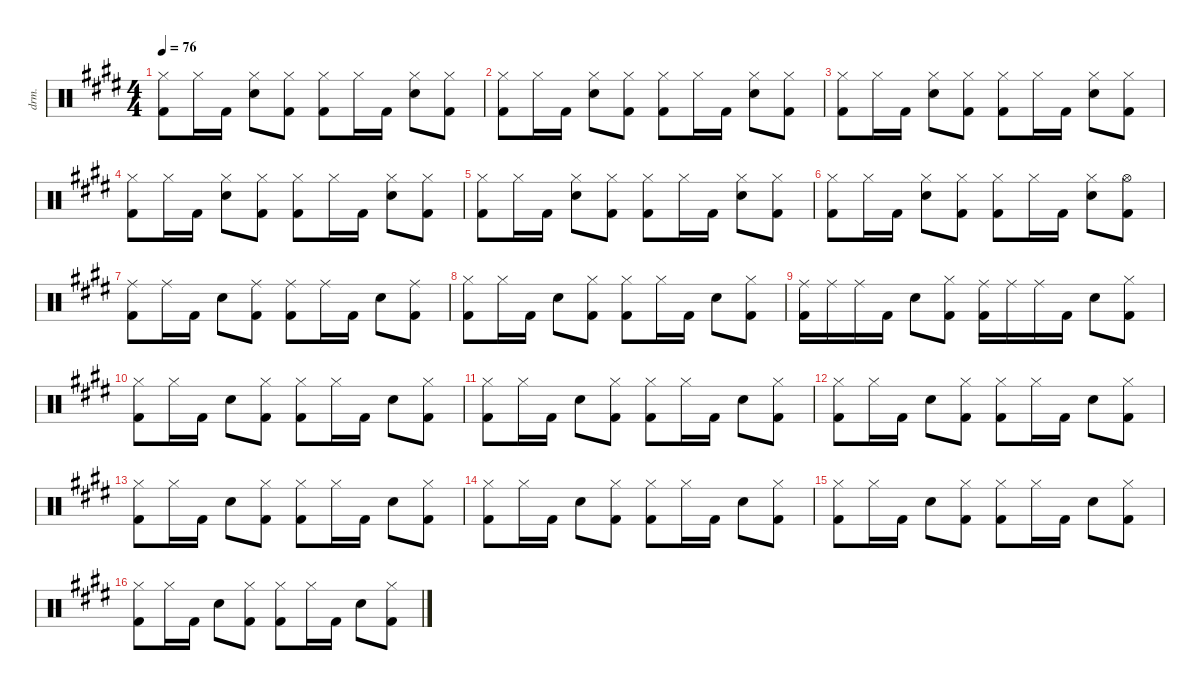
\defaultSystemsLayout 4
\hideDynamics
\bracketExtendMode nobrackets
\otherSystemsTrackNameOrientation horizontal
\track ("Drums" "drm.") {instrument percussion}
\staff {score}
\articulation defaults
\ts (4 4)
\tempo 76
\clef neutral
\ks e
("Hi-Hat (closed)"{acc forcenatural} "Kick (hit) 2"{acc forcenatural}).8{dy f beam Down} "Hi-Hat (closed)"{acc forcenatural}.16{beam Down} "Kick (hit) 2"{acc forcenatural}.16{beam Down} ("Hi-Hat (closed)"{acc forcenatural} "Snare (hit) 2"{acc forcenatural}).8{dy mf beam Down} ("Hi-Hat (closed)"{acc forcenatural} "Kick (hit) 2"{acc forcenatural}).8{dy f beam Down} ("Hi-Hat (closed)"{acc forcenatural} "Kick (hit) 2"{acc forcenatural}).8{beam Down} "Hi-Hat (closed)"{acc forcenatural}.16{beam Down} "Kick (hit) 2"{acc forcenatural}.16{beam Down} ("Hi-Hat (closed)"{acc forcenatural} "Snare (hit) 2"{acc forcenatural}).8{dy mf beam Down} ("Hi-Hat (closed)"{acc forcenatural} "Kick (hit) 2"{acc forcenatural}).8{dy f beam Down} |
("Hi-Hat (closed)"{acc forcenatural} "Kick (hit) 2"{acc forcenatural}).8{beam Down} "Hi-Hat (closed)"{acc forcenatural}.16{beam Down} "Kick (hit) 2"{acc forcenatural}.16{beam Down} ("Hi-Hat (closed)"{acc forcenatural} "Snare (hit) 2"{acc forcenatural}).8{dy mf beam Down} ("Hi-Hat (closed)"{acc forcenatural} "Kick (hit) 2"{acc forcenatural}).8{dy f beam Down} ("Hi-Hat (closed)"{acc forcenatural} "Kick (hit) 2"{acc forcenatural}).8{beam Down} "Hi-Hat (closed)"{acc forcenatural}.16{beam Down} "Kick (hit) 2"{acc forcenatural}.16{beam Down} ("Hi-Hat (closed)"{acc forcenatural} "Snare (hit) 2"{acc forcenatural}).8{dy mf beam Down} ("Hi-Hat (closed)"{acc forcenatural} "Kick (hit) 2"{acc forcenatural}).8{dy f beam Down} |
("Hi-Hat (closed)"{acc forcenatural} "Kick (hit) 2"{acc forcenatural}).8{beam Down} "Hi-Hat (closed)"{acc forcenatural}.16{beam Down} "Kick (hit) 2"{acc forcenatural}.16{beam Down} ("Hi-Hat (closed)"{acc forcenatural} "Snare (hit) 2"{acc forcenatural}).8{dy mf beam Down} ("Hi-Hat (closed)"{acc forcenatural} "Kick (hit) 2"{acc forcenatural}).8{dy f beam Down} ("Hi-Hat (closed)"{acc forcenatural} "Kick (hit) 2"{acc forcenatural}).8{beam Down} "Hi-Hat (closed)"{acc forcenatural}.16{beam Down} "Kick (hit) 2"{acc forcenatural}.16{beam Down} ("Hi-Hat (closed)"{acc forcenatural} "Snare (hit) 2"{acc forcenatural}).8{dy mf beam Down} ("Hi-Hat (closed)"{acc forcenatural} "Kick (hit) 2"{acc forcenatural}).8{dy f beam Down} |
("Hi-Hat (closed)"{acc forcenatural} "Kick (hit) 2"{acc forcenatural}).8{beam Down} "Hi-Hat (closed)"{acc forcenatural}.16{beam Down} "Kick (hit) 2"{acc forcenatural}.16{beam Down} ("Hi-Hat (closed)"{acc forcenatural} "Snare (hit) 2"{acc forcenatural}).8{dy mf beam Down} ("Hi-Hat (closed)"{acc forcenatural} "Kick (hit) 2"{acc forcenatural}).8{dy f beam Down} ("Hi-Hat (closed)"{acc forcenatural} "Kick (hit) 2"{acc forcenatural}).8{beam Down} "Hi-Hat (closed)"{acc forcenatural}.16{beam Down} "Kick (hit) 2"{acc forcenatural}.16{beam Down} ("Hi-Hat (closed)"{acc forcenatural} "Snare (hit) 2"{acc forcenatural}).8{dy mf beam Down} ("Hi-Hat (closed)"{acc forcenatural} "Kick (hit) 2"{acc forcenatural}).8{dy f beam Down} |
("Hi-Hat (closed)"{acc forcenatural} "Kick (hit) 2"{acc forcenatural}).8{beam Down} "Hi-Hat (closed)"{acc forcenatural}.16{beam Down} "Kick (hit) 2"{acc forcenatural}.16{beam Down} ("Hi-Hat (closed)"{acc forcenatural} "Snare (hit) 2"{acc forcenatural}).8{dy mf beam Down} ("Hi-Hat (closed)"{acc forcenatural} "Kick (hit) 2"{acc forcenatural}).8{dy f beam Down} ("Hi-Hat (closed)"{acc forcenatural} "Kick (hit) 2"{acc forcenatural}).8{beam Down} "Hi-Hat (closed)"{acc forcenatural}.16{beam Down} "Kick (hit) 2"{acc forcenatural}.16{beam Down} ("Hi-Hat (closed)"{acc forcenatural} "Snare (hit) 2"{acc forcenatural}).8{dy mf beam Down} ("Hi-Hat (closed)"{acc forcenatural} "Kick (hit) 2"{acc forcenatural}).8{dy f beam Down} |
("Hi-Hat (closed)"{acc forcenatural} "Kick (hit) 2"{acc forcenatural}).8{beam Down} "Hi-Hat (closed)"{acc forcenatural}.16{beam Down} "Kick (hit) 2"{acc forcenatural}.16{beam Down} ("Hi-Hat (closed)"{acc forcenatural} "Snare (hit) 2"{acc forcenatural}).8{dy mf beam Down} ("Hi-Hat (closed)"{acc forcenatural} "Kick (hit) 2"{acc forcenatural}).8{dy f beam Down} ("Hi-Hat (closed)"{acc forcenatural} "Kick (hit) 2"{acc forcenatural}).8{beam Down} "Hi-Hat (closed)"{acc forcenatural}.16{beam Down} "Kick (hit) 2"{acc forcenatural}.16{beam Down} ("Hi-Hat (closed)"{acc forcenatural} "Snare (hit) 2"{acc forcenatural}).8{dy mf beam Down} ("Hi-Hat (open)"{acc forcenatural} "Kick (hit) 2"{acc forcenatural}).8{dy f beam Down} |
("Ride (middle)"{acc forcenatural} "Kick (hit) 2"{acc forcenatural}).8{beam Down} "Ride (middle)"{acc forcenatural}.16{beam Down} "Kick (hit) 2"{acc forcenatural}.16{beam Down} "Snare (hit) 2"{acc forcenatural}.8{beam Down} ("Ride (middle)"{acc forcenatural} "Kick (hit) 2"{acc forcenatural}).8{beam Down} ("Ride (middle)"{acc forcenatural} "Kick (hit) 2"{acc forcenatural}).8{beam Down} "Ride (middle)"{acc forcenatural}.16{beam Down} "Kick (hit) 2"{acc forcenatural}.16{beam Down} "Snare (hit) 2"{acc forcenatural}.8{beam Down} ("Ride (middle)"{acc forcenatural} "Kick (hit) 2"{acc forcenatural}).8{beam Down} |
("Hi-Hat (closed)"{acc forcenatural} "Kick (hit) 2"{acc forcenatural}).8{beam Down} "Hi-Hat (closed)"{acc forcenatural}.16{beam Down} "Kick (hit) 2"{acc forcenatural}.16{beam Down} "Snare (hit) 2"{acc forcenatural}.8{beam Down} ("Hi-Hat (closed)"{acc forcenatural} "Kick (hit) 2"{acc forcenatural}).8{beam Down} ("Hi-Hat (closed)"{acc forcenatural} "Kick (hit) 2"{acc forcenatural}).8{beam Down} "Hi-Hat (closed)"{acc forcenatural}.16{beam Down} "Kick (hit) 2"{acc forcenatural}.16{beam Down} "Snare (hit) 2"{acc forcenatural}.8{beam Down} ("Hi-Hat (closed)"{acc forcenatural} "Kick (hit) 2"{acc forcenatural}).8{beam Down} |
("Ride (middle)"{acc forcenatural} "Kick (hit) 2"{acc forcenatural}).16{beam Down} "Ride (middle)"{acc forcenatural}.16{beam Down} "Ride (middle)"{acc forcenatural}.16{beam Down} "Kick (hit) 2"{acc forcenatural}.16{beam Down} "Snare (hit) 2"{acc forcenatural}.8{beam Down} ("Hi-Hat (closed)"{acc forcenatural} "Kick (hit) 2"{acc forcenatural}).8{beam Down} ("Ride (middle)"{acc forcenatural} "Kick (hit) 2"{acc forcenatural}).16{beam Down} "Ride (middle)"{acc forcenatural}.16{beam Down} "Ride (middle)"{acc forcenatural}.16{beam Down} "Kick (hit) 2"{acc forcenatural}.16{beam Down} "Snare (hit) 2"{acc forcenatural}.8{beam Down} ("Hi-Hat (closed)"{acc forcenatural} "Kick (hit) 2"{acc forcenatural}).8{beam Down} |
("Hi-Hat (closed)"{acc forcenatural} "Kick (hit) 2"{acc forcenatural}).8{beam Down} "Hi-Hat (closed)"{acc forcenatural}.16{beam Down} "Kick (hit) 2"{acc forcenatural}.16{beam Down} "Snare (hit) 2"{acc forcenatural}.8{beam Down} ("Hi-Hat (closed)"{acc forcenatural} "Kick (hit) 2"{acc forcenatural}).8{beam Down} ("Hi-Hat (closed)"{acc forcenatural} "Kick (hit) 2"{acc forcenatural}).8{beam Down} "Hi-Hat (closed)"{acc forcenatural}.16{beam Down} "Kick (hit) 2"{acc forcenatural}.16{beam Down} "Snare (hit) 2"{acc forcenatural}.8{beam Down} ("Hi-Hat (closed)"{acc forcenatural} "Kick (hit) 2"{acc forcenatural}).8{beam Down} |
("Hi-Hat (closed)"{acc forcenatural} "Kick (hit) 2"{acc forcenatural}).8{beam Down} "Hi-Hat (closed)"{acc forcenatural}.16{beam Down} "Kick (hit) 2"{acc forcenatural}.16{beam Down} "Snare (hit) 2"{acc forcenatural}.8{beam Down} ("Hi-Hat (closed)"{acc forcenatural} "Kick (hit) 2"{acc forcenatural}).8{beam Down} ("Hi-Hat (closed)"{acc forcenatural} "Kick (hit) 2"{acc forcenatural}).8{beam Down} "Hi-Hat (closed)"{acc forcenatural}.16{beam Down} "Kick (hit) 2"{acc forcenatural}.16{beam Down} "Snare (hit) 2"{acc forcenatural}.8{beam Down} ("Hi-Hat (closed)"{acc forcenatural} "Kick (hit) 2"{acc forcenatural}).8{beam Down} |
("Hi-Hat (closed)"{acc forcenatural} "Kick (hit) 2"{acc forcenatural}).8{beam Down} "Hi-Hat (closed)"{acc forcenatural}.16{beam Down} "Kick (hit) 2"{acc forcenatural}.16{beam Down} "Snare (hit) 2"{acc forcenatural}.8{beam Down} ("Hi-Hat (closed)"{acc forcenatural} "Kick (hit) 2"{acc forcenatural}).8{beam Down} ("Hi-Hat (closed)"{acc forcenatural} "Kick (hit) 2"{acc forcenatural}).8{beam Down} "Hi-Hat (closed)"{acc forcenatural}.16{beam Down} "Kick (hit) 2"{acc forcenatural}.16{beam Down} "Snare (hit) 2"{acc forcenatural}.8{beam Down} ("Hi-Hat (closed)"{acc forcenatural} "Kick (hit) 2"{acc forcenatural}).8{beam Down} |
("Hi-Hat (closed)"{acc forcenatural} "Kick (hit) 2"{acc forcenatural}).8{beam Down} "Hi-Hat (closed)"{acc forcenatural}.16{beam Down} "Kick (hit) 2"{acc forcenatural}.16{beam Down} "Snare (hit) 2"{acc forcenatural}.8{beam Down} ("Hi-Hat (closed)"{acc forcenatural} "Kick (hit) 2"{acc forcenatural}).8{beam Down} ("Hi-Hat (closed)"{acc forcenatural} "Kick (hit) 2"{acc forcenatural}).8{beam Down} "Hi-Hat (closed)"{acc forcenatural}.16{beam Down} "Kick (hit) 2"{acc forcenatural}.16{beam Down} "Snare (hit) 2"{acc forcenatural}.8{beam Down} ("Hi-Hat (closed)"{acc forcenatural} "Kick (hit) 2"{acc forcenatural}).8{beam Down} |
("Hi-Hat (closed)"{acc forcenatural} "Kick (hit) 2"{acc forcenatural}).8{beam Down} "Hi-Hat (closed)"{acc forcenatural}.16{beam Down} "Kick (hit) 2"{acc forcenatural}.16{beam Down} "Snare (hit) 2"{acc forcenatural}.8{beam Down} ("Hi-Hat (closed)"{acc forcenatural} "Kick (hit) 2"{acc forcenatural}).8{beam Down} ("Hi-Hat (closed)"{acc forcenatural} "Kick (hit) 2"{acc forcenatural}).8{beam Down} "Hi-Hat (closed)"{acc forcenatural}.16{beam Down} "Kick (hit) 2"{acc forcenatural}.16{beam Down} "Snare (hit) 2"{acc forcenatural}.8{beam Down} ("Hi-Hat (closed)"{acc forcenatural} "Kick (hit) 2"{acc forcenatural}).8{beam Down} |
("Hi-Hat (closed)"{acc forcenatural} "Kick (hit) 2"{acc forcenatural}).8{beam Down} "Hi-Hat (closed)"{acc forcenatural}.16{beam Down} "Kick (hit) 2"{acc forcenatural}.16{beam Down} "Snare (hit) 2"{acc forcenatural}.8{beam Down} ("Hi-Hat (closed)"{acc forcenatural} "Kick (hit) 2"{acc forcenatural}).8{beam Down} ("Hi-Hat (closed)"{acc forcenatural} "Kick (hit) 2"{acc forcenatural}).8{beam Down} "Hi-Hat (closed)"{acc forcenatural}.16{beam Down} "Kick (hit) 2"{acc forcenatural}.16{beam Down} "Snare (hit) 2"{acc forcenatural}.8{beam Down} ("Hi-Hat (closed)"{acc forcenatural} "Kick (hit) 2"{acc forcenatural}).8{beam Down} |
("Hi-Hat (closed)"{acc forcenatural} "Kick (hit) 2"{acc forcenatural}).8{beam Down} "Hi-Hat (closed)"{acc forcenatural}.16{beam Down} "Kick (hit) 2"{acc forcenatural}.16{beam Down} "Snare (hit) 2"{acc forcenatural}.8{beam Down} ("Hi-Hat (closed)"{acc forcenatural} "Kick (hit) 2"{acc forcenatural}).8{beam Down} ("Hi-Hat (closed)"{acc forcenatural} "Kick (hit) 2"{acc forcenatural}).8{beam Down} "Hi-Hat (closed)"{acc forcenatural}.16{beam Down} "Kick (hit) 2"{acc forcenatural}.16{beam Down} "Snare (hit) 2"{acc forcenatural}.8{beam Down} ("Hi-Hat (closed)"{acc forcenatural} "Kick (hit) 2"{acc forcenatural}).8{beam Down}
